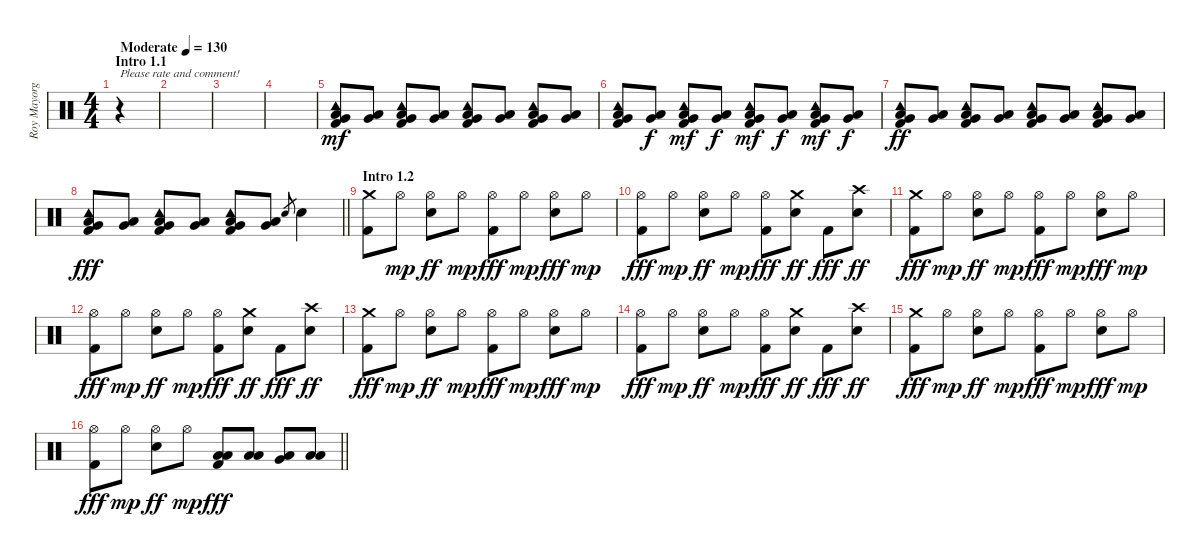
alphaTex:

\track ("Roy Mayorga" "Roy Mayorg") {instrument percussion}
\staff {score}
\articulation defaults
\ts (4 4)
\section ("" "Intro 1.1")
\tempo (130 "Moderate")
\clef neutral
\ks c
r.4{txt "Please rate and comment!" dy mf} |
|
|
|
("Tambourine (hit)" "Very Low Tom (hit)" "Low Floor Tom (hit)" "Kick (hit) 2").8 ("Very Low Tom (hit)" "Low Floor Tom (hit)").8 ("Tambourine (hit)" "Very Low Tom (hit)" "Low Floor Tom (hit)" "Kick (hit) 2").8 ("Very Low Tom (hit)" "Low Floor Tom (hit)").8 ("Tambourine (hit)" "Very Low Tom (hit)" "Low Floor Tom (hit)" "Kick (hit) 2").8 ("Very Low Tom (hit)" "Low Floor Tom (hit)").8 ("Tambourine (hit)" "Very Low Tom (hit)" "Low Floor Tom (hit)" "Kick (hit) 2").8 ("Very Low Tom (hit)" "Low Floor Tom (hit)").8 |
("Tambourine (hit)" "Very Low Tom (hit)" "Low Floor Tom (hit)" "Kick (hit) 2").8 ("Very Low Tom (hit)" "Low Floor Tom (hit)").8{dy f} ("Tambourine (hit)" "Very Low Tom (hit)" "Low Floor Tom (hit)" "Kick (hit) 2").8{dy mf} ("Very Low Tom (hit)" "Low Floor Tom (hit)").8{dy f} ("Tambourine (hit)" "Very Low Tom (hit)" "Low Floor Tom (hit)" "Kick (hit) 2").8{dy mf} ("Very Low Tom (hit)" "Low Floor Tom (hit)").8{dy f} ("Tambourine (hit)" "Very Low Tom (hit)" "Low Floor Tom (hit)" "Kick (hit) 2").8{dy mf} ("Very Low Tom (hit)" "Low Floor Tom (hit)").8{dy f} |
("Tambourine (hit)" "Very Low Tom (hit)" "Low Floor Tom (hit)" "Kick (hit) 2").8{dy ff} ("Very Low Tom (hit)" "Low Floor Tom (hit)").8 ("Tambourine (hit)" "Very Low Tom (hit)" "Low Floor Tom (hit)" "Kick (hit) 2").8 ("Very Low Tom (hit)" "Low Floor Tom (hit)").8 ("Tambourine (hit)" "Very Low Tom (hit)" "Low Floor Tom (hit)" "Kick (hit) 2").8 ("Very Low Tom (hit)" "Low Floor Tom (hit)").8 ("Tambourine (hit)" "Very Low Tom (hit)" "Low Floor Tom (hit)" "Kick (hit) 2").8 ("Very Low Tom (hit)" "Low Floor Tom (hit)").8 |
\barLineRight lightlight
("Tambourine (hit)" "Very Low Tom (hit)" "Low Floor Tom (hit)" "Kick (hit) 2").8{dy fff} ("Very Low Tom (hit)" "Low Floor Tom (hit)").8 ("Tambourine (hit)" "Very Low Tom (hit)" "Low Floor Tom (hit)" "Kick (hit) 2").8 ("Very Low Tom (hit)" "Low Floor Tom (hit)").8 ("Tambourine (hit)" "Very Low Tom (hit)" "Low Floor Tom (hit)" "Kick (hit) 2").8 ("Very Low Tom (hit)" "Low Floor Tom (hit)").8 "Electric Snare (hit)".8{gr} "Electric Snare (hit)".4 |
\section ("" "Intro 1.2")
("Crash medium (hit)" "Kick (hit) 2").8 "Hi-Hat (open)".8{dy mp} ("Hi-Hat (open)" "Electric Snare (hit)").8{dy ff} "Hi-Hat (open)".8{dy mp} ("Hi-Hat (open)" "Kick (hit) 2").8{dy fff} "Hi-Hat (open)".8{dy mp} ("Hi-Hat (open)" "Electric Snare (hit)").8{dy fff} "Hi-Hat (open)".8{dy mp} |
("Hi-Hat (open)" "Kick (hit) 2").8{dy fff} "Hi-Hat (open)".8{dy mp} ("Hi-Hat (open)" "Electric Snare (hit)").8{dy ff} "Hi-Hat (open)".8{dy mp} ("Hi-Hat (open)" "Kick (hit) 2").8{dy fff} ("Crash medium (hit)" "Electric Snare (hit)").8{dy ff} "Kick (hit) 2".8{dy fff} ("Crash high (hit)" "Electric Snare (hit)").8{dy ff} |
("Crash medium (hit)" "Kick (hit) 2").8{dy fff} "Hi-Hat (open)".8{dy mp} ("Hi-Hat (open)" "Electric Snare (hit)").8{dy ff} "Hi-Hat (open)".8{dy mp} ("Hi-Hat (open)" "Kick (hit) 2").8{dy fff} "Hi-Hat (open)".8{dy mp} ("Hi-Hat (open)" "Electric Snare (hit)").8{dy fff} "Hi-Hat (open)".8{dy mp} |
("Hi-Hat (open)" "Kick (hit) 2").8{dy fff} "Hi-Hat (open)".8{dy mp} ("Hi-Hat (open)" "Electric Snare (hit)").8{dy ff} "Hi-Hat (open)".8{dy mp} ("Hi-Hat (open)" "Kick (hit) 2").8{dy fff} ("Crash medium (hit)" "Electric Snare (hit)").8{dy ff} "Kick (hit) 2".8{dy fff} ("Crash high (hit)" "Electric Snare (hit)").8{dy ff} |
("Crash medium (hit)" "Kick (hit) 2").8{dy fff} "Hi-Hat (open)".8{dy mp} ("Hi-Hat (open)" "Electric Snare (hit)").8{dy ff} "Hi-Hat (open)".8{dy mp} ("Hi-Hat (open)" "Kick (hit) 2").8{dy fff} "Hi-Hat (open)".8{dy mp} ("Hi-Hat (open)" "Electric Snare (hit)").8{dy fff} "Hi-Hat (open)".8{dy mp} |
("Hi-Hat (open)" "Kick (hit) 2").8{dy fff} "Hi-Hat (open)".8{dy mp} ("Hi-Hat (open)" "Electric Snare (hit)").8{dy ff} "Hi-Hat (open)".8{dy mp} ("Hi-Hat (open)" "Kick (hit) 2").8{dy fff} ("Crash medium (hit)" "Electric Snare (hit)").8{dy ff} "Kick (hit) 2".8{dy fff} ("Crash high (hit)" "Electric Snare (hit)").8{dy ff} |
("Crash medium (hit)" "Kick (hit) 2").8{dy fff} "Hi-Hat (open)".8{dy mp} ("Hi-Hat (open)" "Electric Snare (hit)").8{dy ff} "Hi-Hat (open)".8{dy mp} ("Hi-Hat (open)" "Kick (hit) 2").8{dy fff} "Hi-Hat (open)".8{dy mp} ("Hi-Hat (open)" "Electric Snare (hit)").8{dy fff} "Hi-Hat (open)".8{dy mp} |
\barLineRight lightlight
("Hi-Hat (open)" "Kick (hit) 2").8{dy fff} "Hi-Hat (open)".8{dy mp} ("Hi-Hat (open)" "Electric Snare (hit)").8{dy ff} "Hi-Hat (open)".8{dy mp} ("Low Tom (hit)" "Low Floor Tom (hit)" "Kick (hit) 2").8{dy fff} ("Low Tom (hit)" "Low Floor Tom (hit)").8 ("Very Low Tom (hit)" "Low Floor Tom (hit)").8 ("Low Floor Tom (hit)" "Low Floor Tom (hit)").8
